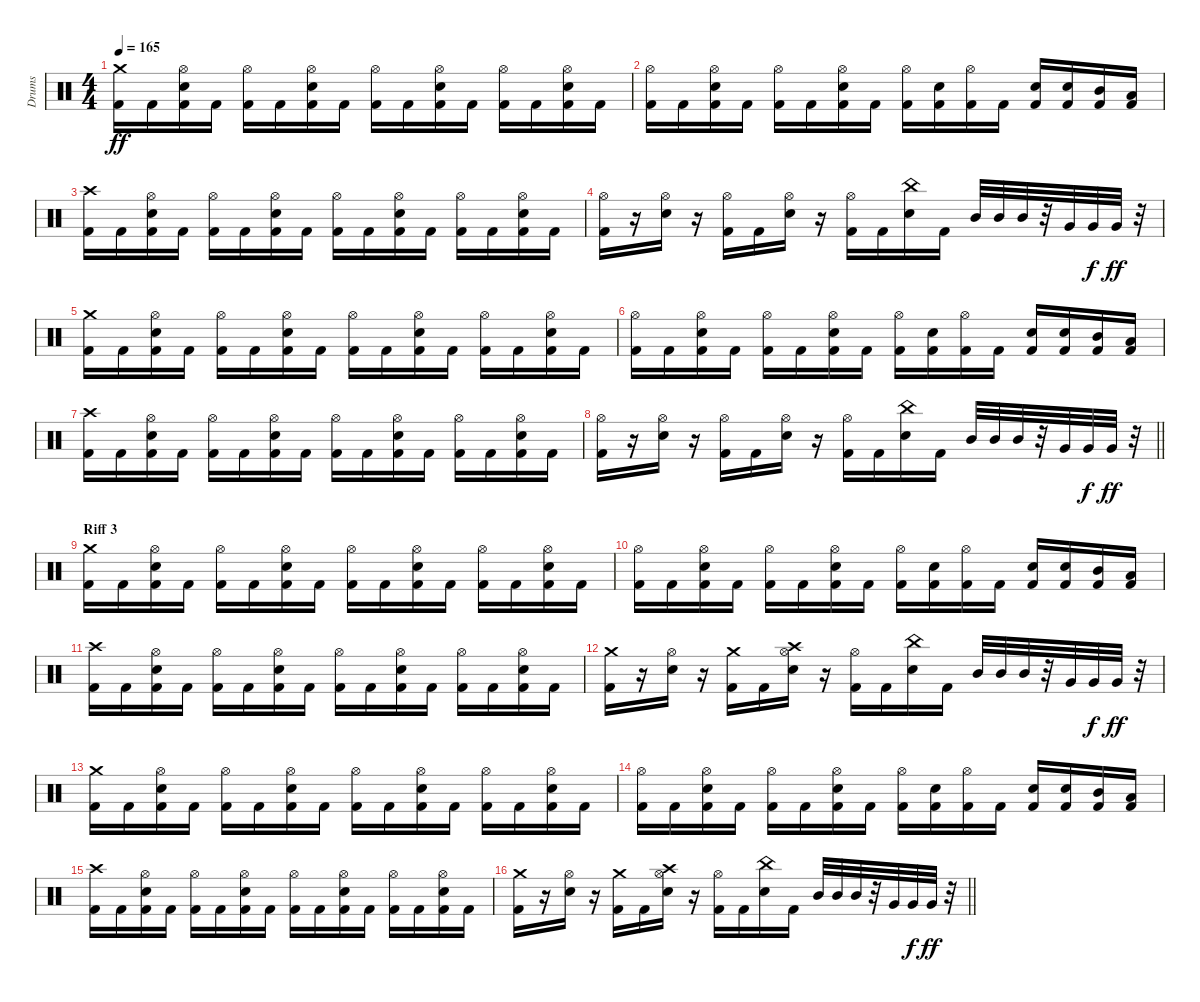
\track ("Drums" "Drums") {instrument percussion}
\staff {score}
\articulation defaults
\ts (4 4)
\tempo 165
\clef neutral
\ks c
("Kick (hit) 2" "Crash medium (hit)").16{dy ff} "Kick (hit) 2".16 ("Kick (hit) 2" "Snare (hit) 2" "Hi-Hat (open)").16 "Kick (hit) 2".16 ("Kick (hit) 2" "Hi-Hat (open)").16 "Kick (hit) 2".16 ("Kick (hit) 2" "Snare (hit) 2" "Hi-Hat (open)").16 "Kick (hit) 2".16 ("Kick (hit) 2" "Hi-Hat (open)").16 "Kick (hit) 2".16 ("Kick (hit) 2" "Snare (hit) 2" "Hi-Hat (open)").16 "Kick (hit) 2".16 ("Kick (hit) 2" "Hi-Hat (open)").16 "Kick (hit) 2".16 ("Kick (hit) 2" "Snare (hit) 2" "Hi-Hat (open)").16 "Kick (hit) 2".16 |
("Kick (hit) 2" "Hi-Hat (open)").16 "Kick (hit) 2".16 ("Kick (hit) 2" "Snare (hit) 2" "Hi-Hat (open)").16 "Kick (hit) 2".16 ("Kick (hit) 2" "Hi-Hat (open)").16 "Kick (hit) 2".16 ("Kick (hit) 2" "Snare (hit) 2" "Hi-Hat (open)").16 "Kick (hit) 2".16 ("Kick (hit) 2" "Hi-Hat (open)").16 ("Kick (hit) 2" "Snare (hit) 2").16 ("Kick (hit) 2" "Hi-Hat (open)").16 "Kick (hit) 2".16 ("Kick (hit) 2" "Snare (hit) 2").16 ("Kick (hit) 2" "Snare (hit) 2").16 ("Kick (hit) 2" "Mid Tom (hit)").16 ("Kick (hit) 2" "Low Tom (hit)").16 |
("Kick (hit) 2" "Crash high (hit)").16 "Kick (hit) 2".16 ("Kick (hit) 2" "Snare (hit) 2" "Hi-Hat (open)").16 "Kick (hit) 2".16 ("Kick (hit) 2" "Hi-Hat (open)").16 "Kick (hit) 2".16 ("Kick (hit) 2" "Snare (hit) 2" "Hi-Hat (open)").16 "Kick (hit) 2".16 ("Kick (hit) 2" "Hi-Hat (open)").16 "Kick (hit) 2".16 ("Kick (hit) 2" "Snare (hit) 2" "Hi-Hat (open)").16 "Kick (hit) 2".16 ("Kick (hit) 2" "Hi-Hat (open)").16 "Kick (hit) 2".16 ("Kick (hit) 2" "Snare (hit) 2" "Hi-Hat (open)").16 "Kick (hit) 2".16 |
("Kick (hit) 2" "Hi-Hat (open)").16 r.16 ("Snare (hit) 2" "Hi-Hat (open)").16 r.16 ("Kick (hit) 2" "Hi-Hat (open)").16 "Kick (hit) 2".16 ("Snare (hit) 2" "Hi-Hat (open)").16 r.16 ("Kick (hit) 2" "Hi-Hat (open)").16 "Kick (hit) 2".16 ("Snare (hit) 2" "China (hit)").16 "Kick (hit) 2".16 "Mid Tom (hit)".32 "Mid Tom (hit)".32 "Mid Tom (hit)".32 r.32 "Very Low Tom (hit)".32 "Very Low Tom (hit)".32{dy f} "Very Low Tom (hit)".32{dy ff} r.32 |
("Kick (hit) 2" "Crash medium (hit)").16 "Kick (hit) 2".16 ("Kick (hit) 2" "Snare (hit) 2" "Hi-Hat (open)").16 "Kick (hit) 2".16 ("Kick (hit) 2" "Hi-Hat (open)").16 "Kick (hit) 2".16 ("Kick (hit) 2" "Snare (hit) 2" "Hi-Hat (open)").16 "Kick (hit) 2".16 ("Kick (hit) 2" "Hi-Hat (open)").16 "Kick (hit) 2".16 ("Kick (hit) 2" "Snare (hit) 2" "Hi-Hat (open)").16 "Kick (hit) 2".16 ("Kick (hit) 2" "Hi-Hat (open)").16 "Kick (hit) 2".16 ("Kick (hit) 2" "Snare (hit) 2" "Hi-Hat (open)").16 "Kick (hit) 2".16 |
("Kick (hit) 2" "Hi-Hat (open)").16 "Kick (hit) 2".16 ("Kick (hit) 2" "Snare (hit) 2" "Hi-Hat (open)").16 "Kick (hit) 2".16 ("Kick (hit) 2" "Hi-Hat (open)").16 "Kick (hit) 2".16 ("Kick (hit) 2" "Snare (hit) 2" "Hi-Hat (open)").16 "Kick (hit) 2".16 ("Kick (hit) 2" "Hi-Hat (open)").16 ("Kick (hit) 2" "Snare (hit) 2").16 ("Kick (hit) 2" "Hi-Hat (open)").16 "Kick (hit) 2".16 ("Kick (hit) 2" "Snare (hit) 2").16 ("Kick (hit) 2" "Snare (hit) 2").16 ("Kick (hit) 2" "Mid Tom (hit)").16 ("Kick (hit) 2" "Low Tom (hit)").16 |
("Kick (hit) 2" "Crash high (hit)").16 "Kick (hit) 2".16 ("Kick (hit) 2" "Snare (hit) 2" "Hi-Hat (open)").16 "Kick (hit) 2".16 ("Kick (hit) 2" "Hi-Hat (open)").16 "Kick (hit) 2".16 ("Kick (hit) 2" "Snare (hit) 2" "Hi-Hat (open)").16 "Kick (hit) 2".16 ("Kick (hit) 2" "Hi-Hat (open)").16 "Kick (hit) 2".16 ("Kick (hit) 2" "Snare (hit) 2" "Hi-Hat (open)").16 "Kick (hit) 2".16 ("Kick (hit) 2" "Hi-Hat (open)").16 "Kick (hit) 2".16 ("Kick (hit) 2" "Snare (hit) 2" "Hi-Hat (open)").16 "Kick (hit) 2".16 |
\barLineRight lightlight
("Kick (hit) 2" "Hi-Hat (open)").16 r.16 ("Snare (hit) 2" "Hi-Hat (open)").16 r.16 ("Kick (hit) 2" "Hi-Hat (open)").16 "Kick (hit) 2".16 ("Snare (hit) 2" "Hi-Hat (open)").16 r.16 ("Kick (hit) 2" "Hi-Hat (open)").16 "Kick (hit) 2".16 ("Snare (hit) 2" "China (hit)").16 "Kick (hit) 2".16 "Mid Tom (hit)".32 "Mid Tom (hit)".32 "Mid Tom (hit)".32 r.32 "Very Low Tom (hit)".32 "Very Low Tom (hit)".32{dy f} "Very Low Tom (hit)".32{dy ff} r.32 |
\section ("" "Riff 3")
("Kick (hit) 2" "Crash medium (hit)").16 "Kick (hit) 2".16 ("Kick (hit) 2" "Snare (hit) 2" "Hi-Hat (open)").16 "Kick (hit) 2".16 ("Kick (hit) 2" "Hi-Hat (open)").16 "Kick (hit) 2".16 ("Kick (hit) 2" "Snare (hit) 2" "Hi-Hat (open)").16 "Kick (hit) 2".16 ("Kick (hit) 2" "Hi-Hat (open)").16 "Kick (hit) 2".16 ("Kick (hit) 2" "Snare (hit) 2" "Hi-Hat (open)").16 "Kick (hit) 2".16 ("Kick (hit) 2" "Hi-Hat (open)").16 "Kick (hit) 2".16 ("Kick (hit) 2" "Snare (hit) 2" "Hi-Hat (open)").16 "Kick (hit) 2".16 |
("Kick (hit) 2" "Hi-Hat (open)").16 "Kick (hit) 2".16 ("Kick (hit) 2" "Snare (hit) 2" "Hi-Hat (open)").16 "Kick (hit) 2".16 ("Kick (hit) 2" "Hi-Hat (open)").16 "Kick (hit) 2".16 ("Kick (hit) 2" "Snare (hit) 2" "Hi-Hat (open)").16 "Kick (hit) 2".16 ("Kick (hit) 2" "Hi-Hat (open)").16 ("Kick (hit) 2" "Snare (hit) 2").16 ("Kick (hit) 2" "Hi-Hat (open)").16 "Kick (hit) 2".16 ("Kick (hit) 2" "Snare (hit) 2").16 ("Kick (hit) 2" "Snare (hit) 2").16 ("Kick (hit) 2" "Mid Tom (hit)").16 ("Kick (hit) 2" "Low Tom (hit)").16 |
("Kick (hit) 2" "Crash high (hit)").16 "Kick (hit) 2".16 ("Kick (hit) 2" "Snare (hit) 2" "Hi-Hat (open)").16 "Kick (hit) 2".16 ("Kick (hit) 2" "Hi-Hat (open)").16 "Kick (hit) 2".16 ("Kick (hit) 2" "Snare (hit) 2" "Hi-Hat (open)").16 "Kick (hit) 2".16 ("Kick (hit) 2" "Hi-Hat (open)").16 "Kick (hit) 2".16 ("Kick (hit) 2" "Snare (hit) 2" "Hi-Hat (open)").16 "Kick (hit) 2".16 ("Kick (hit) 2" "Hi-Hat (open)").16 "Kick (hit) 2".16 ("Kick (hit) 2" "Snare (hit) 2" "Hi-Hat (open)").16 "Kick (hit) 2".16 |
("Kick (hit) 2" "Crash medium (hit)").16 r.16 ("Snare (hit) 2" "Hi-Hat (open)").16 r.16 ("Kick (hit) 2" "Crash medium (hit)").16 "Kick (hit) 2".16 ("Snare (hit) 2" "Hi-Hat (open)" "Crash high (hit)").16 r.16 ("Kick (hit) 2" "Hi-Hat (open)").16 "Kick (hit) 2".16 ("Snare (hit) 2" "China (hit)").16 "Kick (hit) 2".16 "Mid Tom (hit)".32 "Mid Tom (hit)".32 "Mid Tom (hit)".32 r.32 "Very Low Tom (hit)".32 "Very Low Tom (hit)".32{dy f} "Very Low Tom (hit)".32{dy ff} r.32 |
("Kick (hit) 2" "Crash medium (hit)").16 "Kick (hit) 2".16 ("Kick (hit) 2" "Snare (hit) 2" "Hi-Hat (open)").16 "Kick (hit) 2".16 ("Kick (hit) 2" "Hi-Hat (open)").16 "Kick (hit) 2".16 ("Kick (hit) 2" "Snare (hit) 2" "Hi-Hat (open)").16 "Kick (hit) 2".16 ("Kick (hit) 2" "Hi-Hat (open)").16 "Kick (hit) 2".16 ("Kick (hit) 2" "Snare (hit) 2" "Hi-Hat (open)").16 "Kick (hit) 2".16 ("Kick (hit) 2" "Hi-Hat (open)").16 "Kick (hit) 2".16 ("Kick (hit) 2" "Snare (hit) 2" "Hi-Hat (open)").16 "Kick (hit) 2".16 |
("Kick (hit) 2" "Hi-Hat (open)").16 "Kick (hit) 2".16 ("Kick (hit) 2" "Snare (hit) 2" "Hi-Hat (open)").16 "Kick (hit) 2".16 ("Kick (hit) 2" "Hi-Hat (open)").16 "Kick (hit) 2".16 ("Kick (hit) 2" "Snare (hit) 2" "Hi-Hat (open)").16 "Kick (hit) 2".16 ("Kick (hit) 2" "Hi-Hat (open)").16 ("Kick (hit) 2" "Snare (hit) 2").16 ("Kick (hit) 2" "Hi-Hat (open)").16 "Kick (hit) 2".16 ("Kick (hit) 2" "Snare (hit) 2").16 ("Kick (hit) 2" "Snare (hit) 2").16 ("Kick (hit) 2" "Mid Tom (hit)").16 ("Kick (hit) 2" "Low Tom (hit)").16 |
("Kick (hit) 2" "Crash high (hit)").16 "Kick (hit) 2".16 ("Kick (hit) 2" "Snare (hit) 2" "Hi-Hat (open)").16 "Kick (hit) 2".16 ("Kick (hit) 2" "Hi-Hat (open)").16 "Kick (hit) 2".16 ("Kick (hit) 2" "Snare (hit) 2" "Hi-Hat (open)").16 "Kick (hit) 2".16 ("Kick (hit) 2" "Hi-Hat (open)").16 "Kick (hit) 2".16 ("Kick (hit) 2" "Snare (hit) 2" "Hi-Hat (open)").16 "Kick (hit) 2".16 ("Kick (hit) 2" "Hi-Hat (open)").16 "Kick (hit) 2".16 ("Kick (hit) 2" "Snare (hit) 2" "Hi-Hat (open)").16 "Kick (hit) 2".16 |
\barLineRight lightlight
("Kick (hit) 2" "Crash medium (hit)").16 r.16 ("Snare (hit) 2" "Hi-Hat (open)").16 r.16 ("Kick (hit) 2" "Crash medium (hit)").16 "Kick (hit) 2".16 ("Snare (hit) 2" "Hi-Hat (open)" "Crash high (hit)").16 r.16 ("Kick (hit) 2" "Hi-Hat (open)").16 "Kick (hit) 2".16 ("Snare (hit) 2" "China (hit)").16 "Kick (hit) 2".16 "Mid Tom (hit)".32 "Mid Tom (hit)".32 "Mid Tom (hit)".32 r.32 "Very Low Tom (hit)".32 "Very Low Tom (hit)".32{dy f} "Very Low Tom (hit)".32{dy ff} r.32
